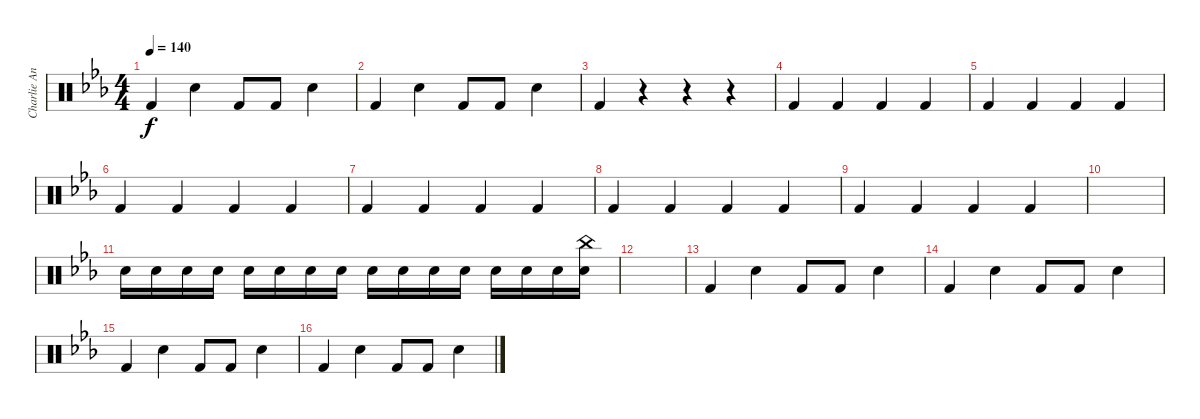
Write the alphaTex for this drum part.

\track ("Charlie Angel" "Charlie An") {instrument percussion}
\staff {score}
\articulation defaults
\ts (4 4)
\tempo 140
\clef neutral
\ks eb "Kick (hit) 2".4{dy f} "Electric Snare (hit)".4 "Kick (hit) 2".8 "Kick (hit) 2".8 "Electric Snare (hit)".4
|
"Kick (hit) 2".4 "Electric Snare (hit)".4 "Kick (hit) 2".8 "Kick (hit) 2".8 "Electric Snare (hit)".4 |
"Kick (hit) 2".4 r.4 r.4 r.4 |
"Kick (hit) 2".4 "Kick (hit) 2".4 "Kick (hit) 2".4 "Kick (hit) 2".4 |
"Kick (hit) 2".4 "Kick (hit) 2".4 "Kick (hit) 2".4 "Kick (hit) 2".4 |
"Kick (hit) 2".4 "Kick (hit) 2".4 "Kick (hit) 2".4 "Kick (hit) 2".4 |
"Kick (hit) 2".4 "Kick (hit) 2".4 "Kick (hit) 2".4 "Kick (hit) 2".4 |
"Kick (hit) 2".4 "Kick (hit) 2".4 "Kick (hit) 2".4 "Kick (hit) 2".4 |
"Kick (hit) 2".4 "Kick (hit) 2".4 "Kick (hit) 2".4 "Kick (hit) 2".4 |
|
"Electric Snare (hit)".16 "Electric Snare (hit)".16 "Electric Snare (hit)".16 "Electric Snare (hit)".16 "Electric Snare (hit)".16 "Electric Snare (hit)".16 "Electric Snare (hit)".16 "Electric Snare (hit)".16 "Electric Snare (hit)".16 "Electric Snare (hit)".16 "Electric Snare (hit)".16 "Electric Snare (hit)".16 "Electric Snare (hit)".16 "Electric Snare (hit)".16 "Electric Snare (hit)".16 ("Electric Snare (hit)" "China (hit)").16 |
|
"Kick (hit) 2".4 "Electric Snare (hit)".4 "Kick (hit) 2".8 "Kick (hit) 2".8 "Electric Snare (hit)".4 |
"Kick (hit) 2".4 "Electric Snare (hit)".4 "Kick (hit) 2".8 "Kick (hit) 2".8 "Electric Snare (hit)".4 |
"Kick (hit) 2".4 "Electric Snare (hit)".4 "Kick (hit) 2".8 "Kick (hit) 2".8 "Electric Snare (hit)".4 |
"Kick (hit) 2".4 "Electric Snare (hit)".4 "Kick (hit) 2".8 "Kick (hit) 2".8 "Electric Snare (hit)".4
